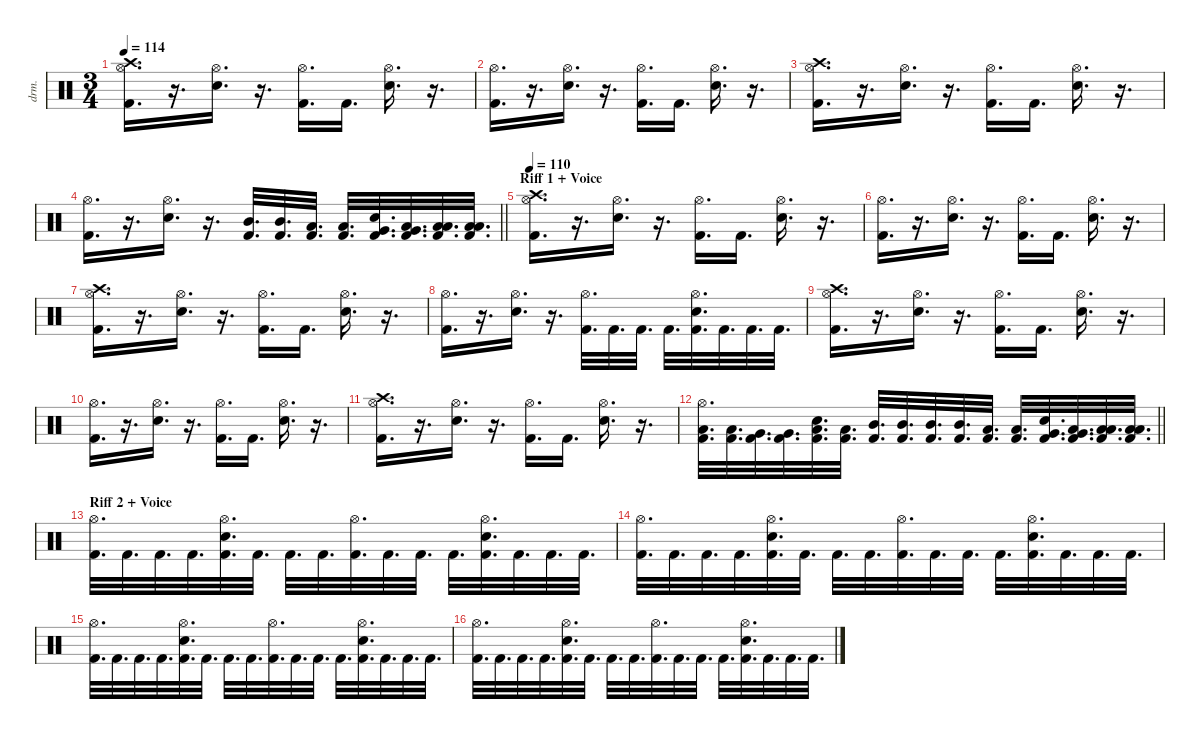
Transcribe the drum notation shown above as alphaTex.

\defaultSystemsLayout 4
\hideDynamics
\bracketExtendMode nobrackets
\otherSystemsTrackNameOrientation horizontal
\track ("Drums" "drm.") {instrument percussion}
\staff {score}
\articulation defaults
\ts (3 4)
\tempo 114
\clef neutral
\ks c
("Hi-Hat (open)" "Crash high (hit)" "Kick (hit) 2").16{d dy f} r.16{d} ("Hi-Hat (open)" "Snare (hit) 2").16{d} r.16{d} ("Hi-Hat (open)" "Kick (hit) 2").16{d} "Kick (hit) 2".16{d} ("Hi-Hat (open)" "Snare (hit) 2").16{d} r.16{d} |
("Hi-Hat (open)" "Kick (hit) 2").16{d} r.16{d} ("Hi-Hat (open)" "Snare (hit) 2").16{d} r.16{d} ("Hi-Hat (open)" "Kick (hit) 2").16{d} "Kick (hit) 2".16{d} ("Hi-Hat (open)" "Snare (hit) 2").16{d} r.16{d} |
("Hi-Hat (open)" "Crash high (hit)" "Kick (hit) 2").16{d} r.16{d} ("Hi-Hat (open)" "Snare (hit) 2").16{d} r.16{d} ("Hi-Hat (open)" "Kick (hit) 2").16{d} "Kick (hit) 2".16{d} ("Hi-Hat (open)" "Snare (hit) 2").16{d} r.16{d} |
\barLineRight lightlight
("Hi-Hat (open)" "Kick (hit) 2").16{d} r.16{d} ("Hi-Hat (open)" "Snare (hit) 2").16{d} r.16{d} ("Mid Tom (hit)" "Kick (hit) 2").32{d} ("Mid Tom (hit)" "Kick (hit) 2").32{d} ("Low Tom (hit)" "Kick (hit) 2").32{d} ("Low Tom (hit)" "Kick (hit) 2").32{d} ("Very Low Tom (hit)" "Snare (hit) 2" "Kick (hit) 2").32{d} ("Very Low Tom (hit)" "Low Tom (hit)" "Kick (hit) 2").32{d} ("Low Floor Tom (hit)" "Low Tom (hit)" "Kick (hit) 2").32{d} ("Low Floor Tom (hit)" "Low Tom (hit)" "Kick (hit) 2").32{d} |
\section ("" "Riff 1 + Voice")
\tempo 110
("Hi-Hat (open)" "Crash high (hit)" "Kick (hit) 2").16{d} r.16{d} ("Hi-Hat (open)" "Snare (hit) 2").16{d} r.16{d} ("Hi-Hat (open)" "Kick (hit) 2").16{d} "Kick (hit) 2".16{d} ("Hi-Hat (open)" "Snare (hit) 2").16{d} r.16{d} |
("Hi-Hat (open)" "Kick (hit) 2").16{d} r.16{d} ("Hi-Hat (open)" "Snare (hit) 2").16{d} r.16{d} ("Hi-Hat (open)" "Kick (hit) 2").16{d} "Kick (hit) 2".16{d} ("Hi-Hat (open)" "Snare (hit) 2").16{d} r.16{d} |
("Hi-Hat (open)" "Crash high (hit)" "Kick (hit) 2").16{d} r.16{d} ("Hi-Hat (open)" "Snare (hit) 2").16{d} r.16{d} ("Hi-Hat (open)" "Kick (hit) 2").16{d} "Kick (hit) 2".16{d} ("Hi-Hat (open)" "Snare (hit) 2").16{d} r.16{d} |
("Hi-Hat (open)" "Kick (hit) 2").16{d} r.16{d} ("Hi-Hat (open)" "Snare (hit) 2").16{d} r.16{d} ("Hi-Hat (open)" "Kick (hit) 2").32{d} "Kick (hit) 2".32{d} "Kick (hit) 2".32{d} "Kick (hit) 2".32{d} ("Hi-Hat (open)" "Snare (hit) 2" "Kick (hit) 2").32{d} "Kick (hit) 2".32{d} "Kick (hit) 2".32{d} "Kick (hit) 2".32{d} |
("Hi-Hat (open)" "Crash high (hit)" "Kick (hit) 2").16{d} r.16{d} ("Hi-Hat (open)" "Snare (hit) 2").16{d} r.16{d} ("Hi-Hat (open)" "Kick (hit) 2").16{d} "Kick (hit) 2".16{d} ("Hi-Hat (open)" "Snare (hit) 2").16{d} r.16{d} |
("Hi-Hat (open)" "Kick (hit) 2").16{d} r.16{d} ("Hi-Hat (open)" "Snare (hit) 2").16{d} r.16{d} ("Hi-Hat (open)" "Kick (hit) 2").16{d} "Kick (hit) 2".16{d} ("Hi-Hat (open)" "Snare (hit) 2").16{d} r.16{d} |
("Hi-Hat (open)" "Crash high (hit)" "Kick (hit) 2").16{d} r.16{d} ("Hi-Hat (open)" "Snare (hit) 2").16{d} r.16{d} ("Hi-Hat (open)" "Kick (hit) 2").16{d} "Kick (hit) 2".16{d} ("Hi-Hat (open)" "Snare (hit) 2").16{d} r.16{d} |
\barLineRight lightlight
("Hi-Hat (open)" "Low Floor Tom (hit)" "Kick (hit) 2").32{d} ("Low Floor Tom (hit)" "Kick (hit) 2").32{d} ("Very Low Tom (hit)" "Kick (hit) 2").32{d} ("Very Low Tom (hit)" "Kick (hit) 2").32{d} ("Low Tom (hit)" "Snare (hit) 2" "Kick (hit) 2").32{d} ("Low Tom (hit)" "Kick (hit) 2").32{d} ("Mid Tom (hit)" "Kick (hit) 2").32{d} ("Mid Tom (hit)" "Kick (hit) 2").32{d} ("Mid Tom (hit)" "Kick (hit) 2").32{d} ("Mid Tom (hit)" "Kick (hit) 2").32{d} ("Low Tom (hit)" "Kick (hit) 2").32{d} ("Low Tom (hit)" "Kick (hit) 2").32{d} ("Very Low Tom (hit)" "Snare (hit) 2" "Kick (hit) 2").32{d} ("Very Low Tom (hit)" "Low Tom (hit)" "Kick (hit) 2").32{d} ("Low Floor Tom (hit)" "Low Tom (hit)" "Kick (hit) 2").32{d} ("Low Floor Tom (hit)" "Low Tom (hit)" "Kick (hit) 2").32{d} |
\section ("" "Riff 2 + Voice")
("Hi-Hat (open)" "Kick (hit) 2").32{d} "Kick (hit) 2".32{d} "Kick (hit) 2".32{d} "Kick (hit) 2".32{d} ("Hi-Hat (open)" "Snare (hit) 2" "Kick (hit) 2").32{d} "Kick (hit) 2".32{d} "Kick (hit) 2".32{d} "Kick (hit) 2".32{d} ("Hi-Hat (open)" "Kick (hit) 2").32{d} "Kick (hit) 2".32{d} "Kick (hit) 2".32{d} "Kick (hit) 2".32{d} ("Hi-Hat (open)" "Snare (hit) 2" "Kick (hit) 2").32{d} "Kick (hit) 2".32{d} "Kick (hit) 2".32{d} "Kick (hit) 2".32{d} |
("Hi-Hat (open)" "Kick (hit) 2").32{d} "Kick (hit) 2".32{d} "Kick (hit) 2".32{d} "Kick (hit) 2".32{d} ("Hi-Hat (open)" "Snare (hit) 2" "Kick (hit) 2").32{d} "Kick (hit) 2".32{d} "Kick (hit) 2".32{d} "Kick (hit) 2".32{d} ("Hi-Hat (open)" "Kick (hit) 2").32{d} "Kick (hit) 2".32{d} "Kick (hit) 2".32{d} "Kick (hit) 2".32{d} ("Hi-Hat (open)" "Snare (hit) 2" "Kick (hit) 2").32{d} "Kick (hit) 2".32{d} "Kick (hit) 2".32{d} "Kick (hit) 2".32{d} |
("Hi-Hat (open)" "Kick (hit) 2").32{d} "Kick (hit) 2".32{d} "Kick (hit) 2".32{d} "Kick (hit) 2".32{d} ("Hi-Hat (open)" "Snare (hit) 2" "Kick (hit) 2").32{d} "Kick (hit) 2".32{d} "Kick (hit) 2".32{d} "Kick (hit) 2".32{d} ("Hi-Hat (open)" "Kick (hit) 2").32{d} "Kick (hit) 2".32{d} "Kick (hit) 2".32{d} "Kick (hit) 2".32{d} ("Hi-Hat (open)" "Snare (hit) 2" "Kick (hit) 2").32{d} "Kick (hit) 2".32{d} "Kick (hit) 2".32{d} "Kick (hit) 2".32{d} |
("Hi-Hat (open)" "Kick (hit) 2").32{d} "Kick (hit) 2".32{d} "Kick (hit) 2".32{d} "Kick (hit) 2".32{d} ("Hi-Hat (open)" "Snare (hit) 2" "Kick (hit) 2").32{d} "Kick (hit) 2".32{d} "Kick (hit) 2".32{d} "Kick (hit) 2".32{d} ("Hi-Hat (open)" "Kick (hit) 2").32{d} "Kick (hit) 2".32{d} "Kick (hit) 2".32{d} "Kick (hit) 2".32{d} ("Hi-Hat (open)" "Snare (hit) 2" "Kick (hit) 2").32{d} "Kick (hit) 2".32{d} "Kick (hit) 2".32{d} "Kick (hit) 2".32{d}
